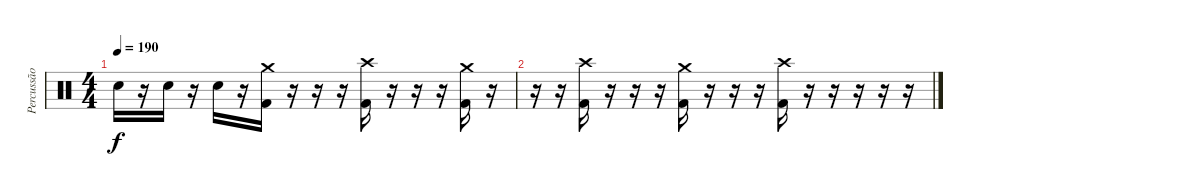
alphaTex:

\track ("Percussão" "Percussão") {instrument percussion}
\staff {score}
\articulation defaults
\ts (4 4)
\tempo 190
\clef neutral
\ks c "Electric Snare (hit)".16{dy f}
r.16 "Electric Snare (hit)".16 r.16 "Electric Snare (hit)".16 r.16 ("Crash medium (hit)" "Kick (hit) 2").16 r.16 r.16 r.16 ("Crash high (hit)" "Kick (hit) 2").16 r.16 r.16 r.16 ("Crash medium (hit)" "Kick (hit) 2").16 r.16 |
r.16 r.16 ("Crash high (hit)" "Kick (hit) 2").16 r.16 r.16 r.16 ("Crash medium (hit)" "Kick (hit) 2").16 r.16 r.16 r.16 ("Crash high (hit)" "Kick (hit) 2").16 r.16 r.16 r.16 r.16 r.16
